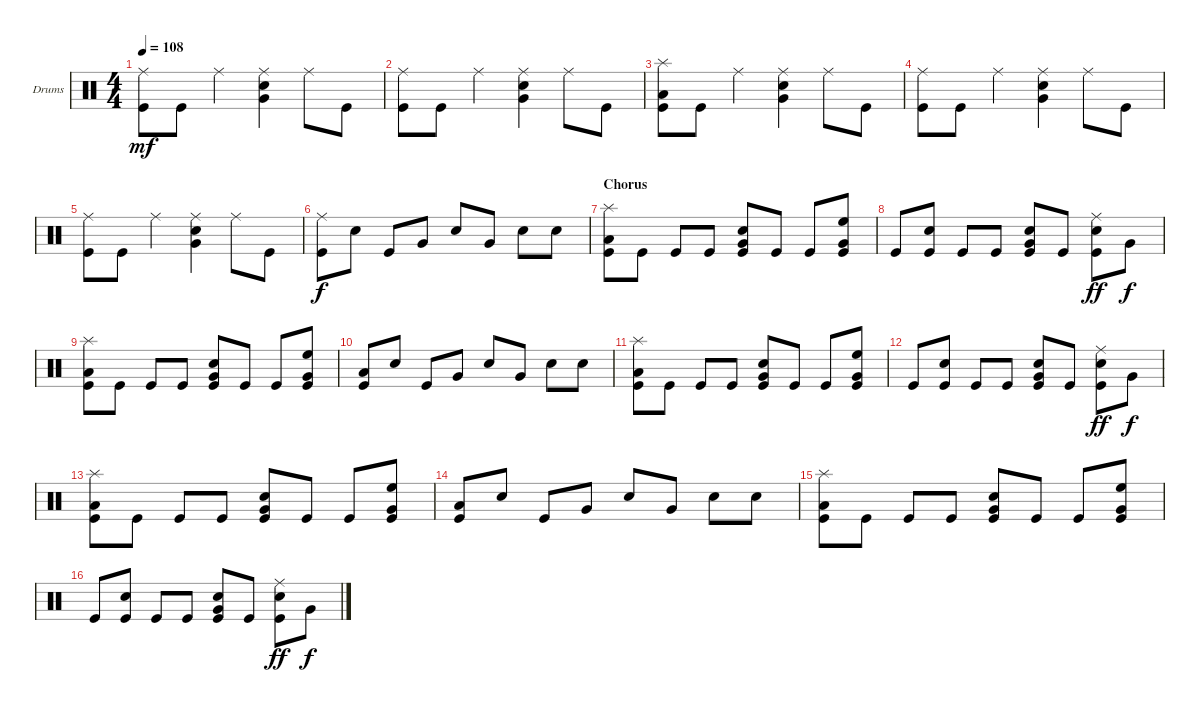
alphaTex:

\bracketExtendMode groupsimilarinstruments
\firstSystemTrackNameOrientation horizontal
\otherSystemsTrackNameOrientation horizontal
\track ("Drumkit" "Drums") {instrument percussion}
\staff {score}
\articulation defaults
\ts (4 4)
\tempo 108
\clef neutral
\ks c
("Ride (middle)" "Kick (hit)").8{dy mf} "Kick (hit)".8 "Ride (middle)".4 ("Snare (hit) 2" "Ride (middle)" "Very Low Tom (hit)").4 "Ride (middle)".8 "Kick (hit)".8 |
("Ride (middle)" "Kick (hit)").8 "Kick (hit)".8 "Ride (middle)".4 ("Snare (hit) 2" "Ride (middle)" "Very Low Tom (hit)").4 "Ride (middle)".8 "Kick (hit)".8 |
("Kick (hit)" "Low Tom (hit)" "Splash (hit)").8 "Kick (hit)".8 "Ride (middle)".4 ("Snare (hit) 2" "Ride (middle)" "Very Low Tom (hit)").4 "Ride (middle)".8 "Kick (hit)".8 |
("Ride (middle)" "Kick (hit)").8 "Kick (hit)".8 "Ride (middle)".4 ("Snare (hit) 2" "Ride (middle)" "Very Low Tom (hit)").4 "Ride (middle)".8 "Kick (hit)".8 |
("Ride (middle)" "Kick (hit)").8 "Kick (hit)".8 "Ride (middle)".4 ("Snare (hit) 2" "Ride (middle)" "Very Low Tom (hit)").4 "Ride (middle)".8 "Kick (hit)".8 |
("Ride (middle)" "Kick (hit)").8{dy f} "Snare (hit) 2".8 "Kick (hit)".8 "Very Low Tom (hit)".8 "Snare (hit) 2".8 "Very Low Tom (hit)".8 "Snare (hit) 2".8 "Snare (hit) 2".8 |
\section ("" "Chorus")
("Low Tom (hit)" "Kick (hit)" "Splash (hit)").8 "Kick (hit)".8 "Kick (hit)".8 "Kick (hit)".8 ("Snare (hit) 2" "Very Low Tom (hit)" "Kick (hit)").8 "Kick (hit)".8 "Kick (hit)".8 ("Kick (hit)" "Very Low Tom (hit)" "High Floor Tom (hit)").8 |
"Kick (hit)".8 ("Kick (hit)" "Snare (hit) 2").8 "Kick (hit)".8 "Kick (hit)".8 ("Snare (hit) 2" "Very Low Tom (hit)" "Kick (hit)").8 "Kick (hit)".8 ("Snare (hit) 2" "Kick (hit)" "Ride (middle)").8{dy ff} "Very Low Tom (hit)".8{dy f} |
("Low Tom (hit)" "Kick (hit)" "Splash (hit)").8 "Kick (hit)".8 "Kick (hit)".8 "Kick (hit)".8 ("Snare (hit) 2" "Very Low Tom (hit)" "Kick (hit)").8 "Kick (hit)".8 "Kick (hit)".8 ("Kick (hit)" "Very Low Tom (hit)" "High Floor Tom (hit)").8 |
("Kick (hit)" "Low Tom (hit)").8 "Snare (hit) 2".8 "Kick (hit)".8 "Very Low Tom (hit)".8 "Snare (hit) 2".8 "Very Low Tom (hit)".8 "Snare (hit) 2".8 "Snare (hit) 2".8 |
("Low Tom (hit)" "Kick (hit)" "Splash (hit)").8 "Kick (hit)".8 "Kick (hit)".8 "Kick (hit)".8 ("Snare (hit) 2" "Very Low Tom (hit)" "Kick (hit)").8 "Kick (hit)".8 "Kick (hit)".8 ("Kick (hit)" "Very Low Tom (hit)" "High Floor Tom (hit)").8 |
"Kick (hit)".8 ("Kick (hit)" "Snare (hit) 2").8 "Kick (hit)".8 "Kick (hit)".8 ("Snare (hit) 2" "Very Low Tom (hit)" "Kick (hit)").8 "Kick (hit)".8 ("Snare (hit) 2" "Kick (hit)" "Ride (middle)").8{dy ff} "Very Low Tom (hit)".8{dy f} |
("Low Tom (hit)" "Kick (hit)" "Splash (hit)").8 "Kick (hit)".8 "Kick (hit)".8 "Kick (hit)".8 ("Snare (hit) 2" "Very Low Tom (hit)" "Kick (hit)").8 "Kick (hit)".8 "Kick (hit)".8 ("Kick (hit)" "Very Low Tom (hit)" "High Floor Tom (hit)").8 |
("Kick (hit)" "Low Tom (hit)").8 "Snare (hit) 2".8 "Kick (hit)".8 "Very Low Tom (hit)".8 "Snare (hit) 2".8 "Very Low Tom (hit)".8 "Snare (hit) 2".8 "Snare (hit) 2".8 |
("Low Tom (hit)" "Kick (hit)" "Splash (hit)").8 "Kick (hit)".8 "Kick (hit)".8 "Kick (hit)".8 ("Snare (hit) 2" "Very Low Tom (hit)" "Kick (hit)").8 "Kick (hit)".8 "Kick (hit)".8 ("Kick (hit)" "Very Low Tom (hit)" "High Floor Tom (hit)").8 |
"Kick (hit)".8 ("Kick (hit)" "Snare (hit) 2").8 "Kick (hit)".8 "Kick (hit)".8 ("Snare (hit) 2" "Very Low Tom (hit)" "Kick (hit)").8 "Kick (hit)".8 ("Snare (hit) 2" "Kick (hit)" "Ride (middle)").8{dy ff} "Very Low Tom (hit)".8{dy f}
